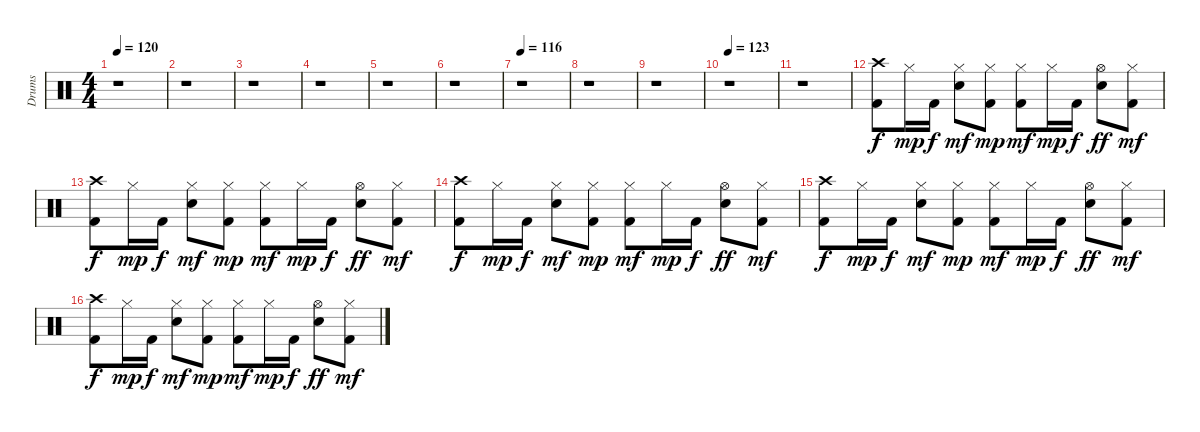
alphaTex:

\track ("Drums" "Drums") {instrument percussion}
\staff {score}
\articulation defaults
\ts (4 4)
\tempo 120
\clef neutral
\ks c
r.1{dy f} |
r.1 |
r.1 |
r.1 |
r.1 |
r.1 |
\tempo 116
r.1 |
r.1 |
r.1 |
\tempo 123
r.1 |
r.1 |
("Kick (hit) 2" "Crash high (hit)").8 "Hi-Hat (closed)".16{dy mp} "Kick (hit) 2".16{dy f} ("Snare (hit) 2" "Hi-Hat (closed)").8{dy mf} ("Kick (hit) 2" "Hi-Hat (closed)").8{dy mp} ("Kick (hit) 2" "Hi-Hat (closed)").8{dy mf} "Hi-Hat (closed)".16{dy mp} "Kick (hit) 2".16{dy f} ("Snare (hit) 2" "Hi-Hat (open)").8{dy ff} ("Kick (hit) 2" "Hi-Hat (closed)").8{dy mf} |
("Kick (hit) 2" "Crash high (hit)").8{dy f} "Hi-Hat (closed)".16{dy mp} "Kick (hit) 2".16{dy f} ("Snare (hit) 2" "Hi-Hat (closed)").8{dy mf} ("Kick (hit) 2" "Hi-Hat (closed)").8{dy mp} ("Kick (hit) 2" "Hi-Hat (closed)").8{dy mf} "Hi-Hat (closed)".16{dy mp} "Kick (hit) 2".16{dy f} ("Snare (hit) 2" "Hi-Hat (open)").8{dy ff} ("Kick (hit) 2" "Hi-Hat (closed)").8{dy mf} |
("Kick (hit) 2" "Crash high (hit)").8{dy f} "Hi-Hat (closed)".16{dy mp} "Kick (hit) 2".16{dy f} ("Snare (hit) 2" "Hi-Hat (closed)").8{dy mf} ("Kick (hit) 2" "Hi-Hat (closed)").8{dy mp} ("Kick (hit) 2" "Hi-Hat (closed)").8{dy mf} "Hi-Hat (closed)".16{dy mp} "Kick (hit) 2".16{dy f} ("Snare (hit) 2" "Hi-Hat (open)").8{dy ff} ("Kick (hit) 2" "Hi-Hat (closed)").8{dy mf} |
("Kick (hit) 2" "Crash high (hit)").8{dy f} "Hi-Hat (closed)".16{dy mp} "Kick (hit) 2".16{dy f} ("Snare (hit) 2" "Hi-Hat (closed)").8{dy mf} ("Kick (hit) 2" "Hi-Hat (closed)").8{dy mp} ("Kick (hit) 2" "Hi-Hat (closed)").8{dy mf} "Hi-Hat (closed)".16{dy mp} "Kick (hit) 2".16{dy f} ("Snare (hit) 2" "Hi-Hat (open)").8{dy ff} ("Kick (hit) 2" "Hi-Hat (closed)").8{dy mf} |
("Kick (hit) 2" "Crash high (hit)").8{dy f} "Hi-Hat (closed)".16{dy mp} "Kick (hit) 2".16{dy f} ("Snare (hit) 2" "Hi-Hat (closed)").8{dy mf} ("Kick (hit) 2" "Hi-Hat (closed)").8{dy mp} ("Kick (hit) 2" "Hi-Hat (closed)").8{dy mf} "Hi-Hat (closed)".16{dy mp} "Kick (hit) 2".16{dy f} ("Snare (hit) 2" "Hi-Hat (open)").8{dy ff} ("Kick (hit) 2" "Hi-Hat (closed)").8{dy mf}
